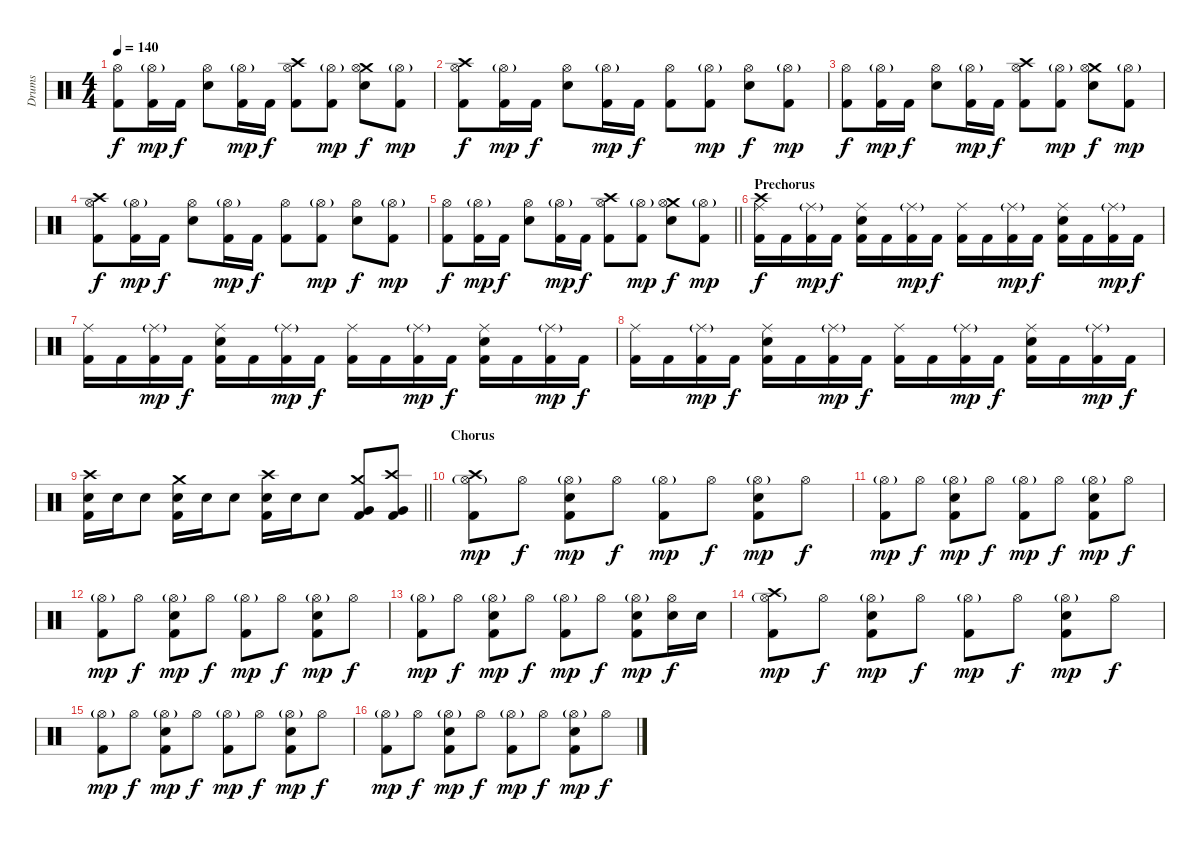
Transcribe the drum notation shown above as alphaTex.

\track ("Drums" "Drums") {instrument percussion}
\staff {score}
\articulation defaults
\ts (4 4)
\tempo 140
\clef neutral
\ks c
("Hi-Hat (open)" "Kick (hit) 2").8{dy f} ("Hi-Hat (open)"{g} "Kick (hit) 2").16{dy mp} "Kick (hit) 2".16{dy f} ("Hi-Hat (open)" "Snare (hit) 2").8 ("Hi-Hat (open)"{g} "Kick (hit) 2").16{dy mp} "Kick (hit) 2".16{dy f} ("Crash high (hit)" "Hi-Hat (open)" "Kick (hit) 2").8 ("Hi-Hat (open)"{g} "Kick (hit) 2").8{dy mp} ("Crash medium (hit)" "Hi-Hat (open)" "Snare (hit) 2").8{dy f} ("Hi-Hat (open)"{g} "Kick (hit) 2").8{dy mp} |
("Crash high (hit)" "Hi-Hat (open)" "Kick (hit) 2").8{dy f} ("Hi-Hat (open)"{g} "Kick (hit) 2").16{dy mp} "Kick (hit) 2".16{dy f} ("Hi-Hat (open)" "Snare (hit) 2").8 ("Hi-Hat (open)"{g} "Kick (hit) 2").16{dy mp} "Kick (hit) 2".16{dy f} ("Hi-Hat (open)" "Kick (hit) 2").8 ("Hi-Hat (open)"{g} "Kick (hit) 2").8{dy mp} ("Hi-Hat (open)" "Snare (hit) 2").8{dy f} ("Hi-Hat (open)"{g} "Kick (hit) 2").8{dy mp} |
("Hi-Hat (open)" "Kick (hit) 2").8{dy f} ("Hi-Hat (open)"{g} "Kick (hit) 2").16{dy mp} "Kick (hit) 2".16{dy f} ("Hi-Hat (open)" "Snare (hit) 2").8 ("Hi-Hat (open)"{g} "Kick (hit) 2").16{dy mp} "Kick (hit) 2".16{dy f} ("Crash high (hit)" "Hi-Hat (open)" "Kick (hit) 2").8 ("Hi-Hat (open)"{g} "Kick (hit) 2").8{dy mp} ("Crash medium (hit)" "Hi-Hat (open)" "Snare (hit) 2").8{dy f} ("Hi-Hat (open)"{g} "Kick (hit) 2").8{dy mp} |
("Crash high (hit)" "Hi-Hat (open)" "Kick (hit) 2").8{dy f} ("Hi-Hat (open)"{g} "Kick (hit) 2").16{dy mp} "Kick (hit) 2".16{dy f} ("Hi-Hat (open)" "Snare (hit) 2").8 ("Hi-Hat (open)"{g} "Kick (hit) 2").16{dy mp} "Kick (hit) 2".16{dy f} ("Hi-Hat (open)" "Kick (hit) 2").8 ("Hi-Hat (open)"{g} "Kick (hit) 2").8{dy mp} ("Hi-Hat (open)" "Snare (hit) 2").8{dy f} ("Hi-Hat (open)"{g} "Kick (hit) 2").8{dy mp} |
\barLineRight lightlight
("Hi-Hat (open)" "Kick (hit) 2").8{dy f} ("Hi-Hat (open)"{g} "Kick (hit) 2").16{dy mp} "Kick (hit) 2".16{dy f} ("Hi-Hat (open)" "Snare (hit) 2").8 ("Hi-Hat (open)"{g} "Kick (hit) 2").16{dy mp} "Kick (hit) 2".16{dy f} ("Crash high (hit)" "Hi-Hat (open)" "Kick (hit) 2").8 ("Hi-Hat (open)"{g} "Kick (hit) 2").8{dy mp} ("Crash medium (hit)" "Hi-Hat (open)" "Snare (hit) 2").8{dy f} ("Hi-Hat (open)"{g} "Kick (hit) 2").8{dy mp} |
\section ("" "Prechorus")
("Crash high (hit)" "Ride (middle)" "Kick (hit) 2").16{dy f} "Kick (hit) 2".16 ("Ride (middle)"{g} "Kick (hit) 2").16{dy mp} "Kick (hit) 2".16{dy f} ("Ride (middle)" "Snare (hit) 2" "Kick (hit) 2").16 "Kick (hit) 2".16 ("Ride (middle)"{g} "Kick (hit) 2").16{dy mp} "Kick (hit) 2".16{dy f} ("Ride (middle)" "Kick (hit) 2").16 "Kick (hit) 2".16 ("Ride (middle)"{g} "Kick (hit) 2").16{dy mp} "Kick (hit) 2".16{dy f} ("Ride (middle)" "Snare (hit) 2" "Kick (hit) 2").16 "Kick (hit) 2".16 ("Ride (middle)"{g} "Kick (hit) 2").16{dy mp} "Kick (hit) 2".16{dy f} |
("Ride (middle)" "Kick (hit) 2").16 "Kick (hit) 2".16 ("Ride (middle)"{g} "Kick (hit) 2").16{dy mp} "Kick (hit) 2".16{dy f} ("Ride (middle)" "Snare (hit) 2" "Kick (hit) 2").16 "Kick (hit) 2".16 ("Ride (middle)"{g} "Kick (hit) 2").16{dy mp} "Kick (hit) 2".16{dy f} ("Ride (middle)" "Kick (hit) 2").16 "Kick (hit) 2".16 ("Ride (middle)"{g} "Kick (hit) 2").16{dy mp} "Kick (hit) 2".16{dy f} ("Ride (middle)" "Snare (hit) 2" "Kick (hit) 2").16 "Kick (hit) 2".16 ("Ride (middle)"{g} "Kick (hit) 2").16{dy mp} "Kick (hit) 2".16{dy f} |
("Ride (middle)" "Kick (hit) 2").16 "Kick (hit) 2".16 ("Ride (middle)"{g} "Kick (hit) 2").16{dy mp} "Kick (hit) 2".16{dy f} ("Ride (middle)" "Snare (hit) 2" "Kick (hit) 2").16 "Kick (hit) 2".16 ("Ride (middle)"{g} "Kick (hit) 2").16{dy mp} "Kick (hit) 2".16{dy f} ("Ride (middle)" "Kick (hit) 2").16 "Kick (hit) 2".16 ("Ride (middle)"{g} "Kick (hit) 2").16{dy mp} "Kick (hit) 2".16{dy f} ("Ride (middle)" "Snare (hit) 2" "Kick (hit) 2").16 "Kick (hit) 2".16 ("Ride (middle)"{g} "Kick (hit) 2").16{dy mp} "Kick (hit) 2".16{dy f} |
\barLineRight lightlight
("Crash high (hit)" "Snare (hit) 2" "Kick (hit) 2").16 "Snare (hit) 2".16 "Snare (hit) 2".8 ("Crash medium (hit)" "Snare (hit) 2" "Kick (hit) 2").16 "Snare (hit) 2".16 "Snare (hit) 2".8 ("Crash high (hit)" "Snare (hit) 2" "Kick (hit) 2").16 "Snare (hit) 2".16 "Snare (hit) 2".8 ("Crash medium (hit)" "Very Low Tom (hit)" "Kick (hit) 2").8 ("Crash high (hit)" "Very Low Tom (hit)" "Kick (hit) 2").8 |
\section ("" "Chorus")
("Crash high (hit)" "Hi-Hat (open)"{g} "Kick (hit) 2").8{dy mp} "Hi-Hat (open)".8{dy f} ("Hi-Hat (open)"{g} "Snare (hit) 2" "Kick (hit) 2").8{dy mp} "Hi-Hat (open)".8{dy f} ("Hi-Hat (open)"{g} "Kick (hit) 2").8{dy mp} "Hi-Hat (open)".8{dy f} ("Hi-Hat (open)"{g} "Snare (hit) 2" "Kick (hit) 2").8{dy mp} "Hi-Hat (open)".8{dy f} |
("Hi-Hat (open)"{g} "Kick (hit) 2").8{dy mp} "Hi-Hat (open)".8{dy f} ("Hi-Hat (open)"{g} "Snare (hit) 2" "Kick (hit) 2").8{dy mp} "Hi-Hat (open)".8{dy f} ("Hi-Hat (open)"{g} "Kick (hit) 2").8{dy mp} "Hi-Hat (open)".8{dy f} ("Hi-Hat (open)"{g} "Snare (hit) 2" "Kick (hit) 2").8{dy mp} "Hi-Hat (open)".8{dy f} |
("Hi-Hat (open)"{g} "Kick (hit) 2").8{dy mp} "Hi-Hat (open)".8{dy f} ("Hi-Hat (open)"{g} "Snare (hit) 2" "Kick (hit) 2").8{dy mp} "Hi-Hat (open)".8{dy f} ("Hi-Hat (open)"{g} "Kick (hit) 2").8{dy mp} "Hi-Hat (open)".8{dy f} ("Hi-Hat (open)"{g} "Snare (hit) 2" "Kick (hit) 2").8{dy mp} "Hi-Hat (open)".8{dy f} |
("Hi-Hat (open)"{g} "Kick (hit) 2").8{dy mp} "Hi-Hat (open)".8{dy f} ("Hi-Hat (open)"{g} "Snare (hit) 2" "Kick (hit) 2").8{dy mp} "Hi-Hat (open)".8{dy f} ("Hi-Hat (open)"{g} "Kick (hit) 2").8{dy mp} "Hi-Hat (open)".8{dy f} ("Hi-Hat (open)"{g} "Snare (hit) 2" "Kick (hit) 2").8{dy mp} ("Hi-Hat (open)" "Snare (hit) 2").16{dy f} "Snare (hit) 2".16 |
("Crash high (hit)" "Hi-Hat (open)"{g} "Kick (hit) 2").8{dy mp} "Hi-Hat (open)".8{dy f} ("Hi-Hat (open)"{g} "Snare (hit) 2" "Kick (hit) 2").8{dy mp} "Hi-Hat (open)".8{dy f} ("Hi-Hat (open)"{g} "Kick (hit) 2").8{dy mp} "Hi-Hat (open)".8{dy f} ("Hi-Hat (open)"{g} "Snare (hit) 2" "Kick (hit) 2").8{dy mp} "Hi-Hat (open)".8{dy f} |
("Hi-Hat (open)"{g} "Kick (hit) 2").8{dy mp} "Hi-Hat (open)".8{dy f} ("Hi-Hat (open)"{g} "Snare (hit) 2" "Kick (hit) 2").8{dy mp} "Hi-Hat (open)".8{dy f} ("Hi-Hat (open)"{g} "Kick (hit) 2").8{dy mp} "Hi-Hat (open)".8{dy f} ("Hi-Hat (open)"{g} "Snare (hit) 2" "Kick (hit) 2").8{dy mp} "Hi-Hat (open)".8{dy f} |
("Hi-Hat (open)"{g} "Kick (hit) 2").8{dy mp} "Hi-Hat (open)".8{dy f} ("Hi-Hat (open)"{g} "Snare (hit) 2" "Kick (hit) 2").8{dy mp} "Hi-Hat (open)".8{dy f} ("Hi-Hat (open)"{g} "Kick (hit) 2").8{dy mp} "Hi-Hat (open)".8{dy f} ("Hi-Hat (open)"{g} "Snare (hit) 2" "Kick (hit) 2").8{dy mp} "Hi-Hat (open)".8{dy f}
